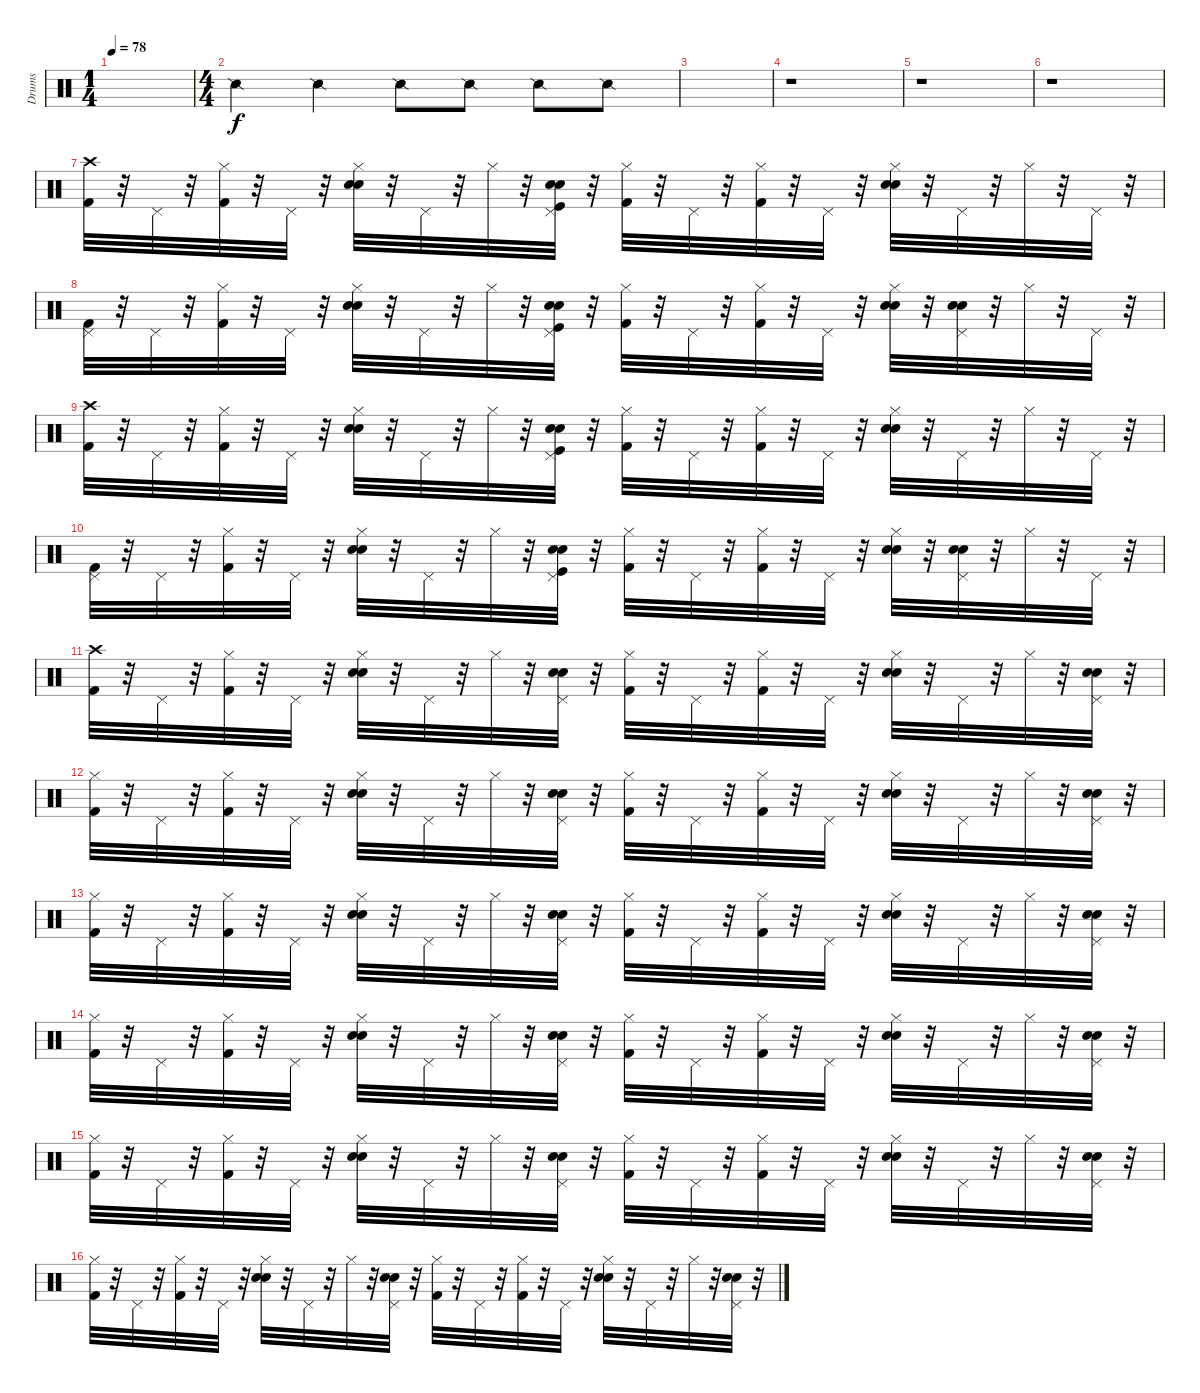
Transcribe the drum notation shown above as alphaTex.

\track ("Drums" "Drums") {instrument percussion}
\staff {score}
\articulation defaults
\ts (1 4)
\tempo 78
\clef neutral
\ks c
|
\ts (4 4)
"Snare (side stick) 2".4 "Snare (side stick) 2".4 "Snare (side stick) 2".8 "Snare (side stick) 2".8 "Snare (side stick) 2".8 "Snare (side stick) 2".8 |
|
r.1 |
r.1 |
r.1 |
("Crash high (hit)" "Kick (hit) 2").32 r.32 "Pedal Hi-Hat (hit)".32 r.32 ("Hi-Hat (closed)" "Kick (hit) 2").32 r.32 "Pedal Hi-Hat (hit)".32 r.32 ("Hi-Hat (closed)" "Hand Clap (hit)" "Electric Snare (hit)").32 r.32 "Pedal Hi-Hat (hit)".32 r.32 "Hi-Hat (closed)".32 r.32 ("Hand Clap (hit)" "Electric Snare (hit)" "Pedal Hi-Hat (hit)" "Kick (hit)").32 r.32 ("Hi-Hat (closed)" "Kick (hit) 2").32 r.32 "Pedal Hi-Hat (hit)".32 r.32 ("Hi-Hat (closed)" "Kick (hit) 2").32 r.32 "Pedal Hi-Hat (hit)".32 r.32 ("Hi-Hat (closed)" "Hand Clap (hit)" "Electric Snare (hit)").32 r.32 "Pedal Hi-Hat (hit)".32 r.32 "Hi-Hat (closed)".32 r.32 "Pedal Hi-Hat (hit)".32 r.32 |
("Pedal Hi-Hat (hit)" "Kick (hit) 2").32 r.32 "Pedal Hi-Hat (hit)".32 r.32 ("Hi-Hat (closed)" "Kick (hit) 2").32 r.32 "Pedal Hi-Hat (hit)".32 r.32 ("Hi-Hat (closed)" "Hand Clap (hit)" "Electric Snare (hit)").32 r.32 "Pedal Hi-Hat (hit)".32 r.32 "Hi-Hat (closed)".32 r.32 ("Hand Clap (hit)" "Electric Snare (hit)" "Pedal Hi-Hat (hit)" "Kick (hit)").32 r.32 ("Hi-Hat (closed)" "Kick (hit) 2").32 r.32 "Pedal Hi-Hat (hit)".32 r.32 ("Hi-Hat (closed)" "Kick (hit) 2").32 r.32 "Pedal Hi-Hat (hit)".32 r.32 ("Hi-Hat (closed)" "Hand Clap (hit)" "Electric Snare (hit)").32 r.32 ("Hand Clap (hit)" "Electric Snare (hit)" "Pedal Hi-Hat (hit)").32 r.32 "Hi-Hat (closed)".32 r.32 "Pedal Hi-Hat (hit)".32 r.32 |
("Crash high (hit)" "Kick (hit) 2").32 r.32 "Pedal Hi-Hat (hit)".32 r.32 ("Hi-Hat (closed)" "Kick (hit) 2").32 r.32 "Pedal Hi-Hat (hit)".32 r.32 ("Hi-Hat (closed)" "Hand Clap (hit)" "Electric Snare (hit)").32 r.32 "Pedal Hi-Hat (hit)".32 r.32 "Hi-Hat (closed)".32 r.32 ("Hand Clap (hit)" "Electric Snare (hit)" "Pedal Hi-Hat (hit)" "Kick (hit)").32 r.32 ("Hi-Hat (closed)" "Kick (hit) 2").32 r.32 "Pedal Hi-Hat (hit)".32 r.32 ("Hi-Hat (closed)" "Kick (hit) 2").32 r.32 "Pedal Hi-Hat (hit)".32 r.32 ("Hi-Hat (closed)" "Hand Clap (hit)" "Electric Snare (hit)").32 r.32 "Pedal Hi-Hat (hit)".32 r.32 "Hi-Hat (closed)".32 r.32 "Pedal Hi-Hat (hit)".32 r.32 |
("Pedal Hi-Hat (hit)" "Kick (hit) 2").32 r.32 "Pedal Hi-Hat (hit)".32 r.32 ("Hi-Hat (closed)" "Kick (hit) 2").32 r.32 "Pedal Hi-Hat (hit)".32 r.32 ("Hi-Hat (closed)" "Hand Clap (hit)" "Electric Snare (hit)").32 r.32 "Pedal Hi-Hat (hit)".32 r.32 "Hi-Hat (closed)".32 r.32 ("Hand Clap (hit)" "Electric Snare (hit)" "Pedal Hi-Hat (hit)" "Kick (hit)").32 r.32 ("Hi-Hat (closed)" "Kick (hit) 2").32 r.32 "Pedal Hi-Hat (hit)".32 r.32 ("Hi-Hat (closed)" "Kick (hit) 2").32 r.32 "Pedal Hi-Hat (hit)".32 r.32 ("Hi-Hat (closed)" "Hand Clap (hit)" "Electric Snare (hit)").32 r.32 ("Hand Clap (hit)" "Electric Snare (hit)" "Pedal Hi-Hat (hit)").32 r.32 "Hi-Hat (closed)".32 r.32 "Pedal Hi-Hat (hit)".32 r.32 |
("Kick (hit) 2" "Crash high (hit)").32 r.32 "Pedal Hi-Hat (hit)".32 r.32 ("Kick (hit) 2" "Hi-Hat (closed)").32 r.32 "Pedal Hi-Hat (hit)".32 r.32 ("Snare (hit) 2" "Electric Snare (hit)" "Hi-Hat (closed)").32 r.32 "Pedal Hi-Hat (hit)".32 r.32 "Hi-Hat (closed)".32 r.32 ("Snare (hit) 2" "Electric Snare (hit)" "Pedal Hi-Hat (hit)").32 r.32 ("Kick (hit) 2" "Hi-Hat (closed)").32 r.32 "Pedal Hi-Hat (hit)".32 r.32 ("Kick (hit) 2" "Hi-Hat (closed)").32 r.32 "Pedal Hi-Hat (hit)".32 r.32 ("Electric Snare (hit)" "Snare (hit) 2" "Hi-Hat (closed)").32 r.32 "Pedal Hi-Hat (hit)".32 r.32 "Hi-Hat (closed)".32 r.32 ("Pedal Hi-Hat (hit)" "Snare (hit) 2" "Electric Snare (hit)").32 r.32 |
("Hi-Hat (closed)" "Kick (hit) 2").32 r.32 "Pedal Hi-Hat (hit)".32 r.32 ("Kick (hit) 2" "Hi-Hat (closed)").32 r.32 "Pedal Hi-Hat (hit)".32 r.32 ("Snare (hit) 2" "Electric Snare (hit)" "Hi-Hat (closed)").32 r.32 "Pedal Hi-Hat (hit)".32 r.32 "Hi-Hat (closed)".32 r.32 ("Snare (hit) 2" "Electric Snare (hit)" "Pedal Hi-Hat (hit)").32 r.32 ("Kick (hit) 2" "Hi-Hat (closed)").32 r.32 "Pedal Hi-Hat (hit)".32 r.32 ("Kick (hit) 2" "Hi-Hat (closed)").32 r.32 "Pedal Hi-Hat (hit)".32 r.32 ("Electric Snare (hit)" "Snare (hit) 2" "Hi-Hat (closed)").32 r.32 "Pedal Hi-Hat (hit)".32 r.32 "Hi-Hat (closed)".32 r.32 ("Pedal Hi-Hat (hit)" "Snare (hit) 2" "Electric Snare (hit)").32 r.32 |
("Hi-Hat (closed)" "Kick (hit) 2").32 r.32 "Pedal Hi-Hat (hit)".32 r.32 ("Kick (hit) 2" "Hi-Hat (closed)").32 r.32 "Pedal Hi-Hat (hit)".32 r.32 ("Snare (hit) 2" "Electric Snare (hit)" "Hi-Hat (closed)").32 r.32 "Pedal Hi-Hat (hit)".32 r.32 "Hi-Hat (closed)".32 r.32 ("Snare (hit) 2" "Electric Snare (hit)" "Pedal Hi-Hat (hit)").32 r.32 ("Kick (hit) 2" "Hi-Hat (closed)").32 r.32 "Pedal Hi-Hat (hit)".32 r.32 ("Kick (hit) 2" "Hi-Hat (closed)").32 r.32 "Pedal Hi-Hat (hit)".32 r.32 ("Electric Snare (hit)" "Snare (hit) 2" "Hi-Hat (closed)").32 r.32 "Pedal Hi-Hat (hit)".32 r.32 "Hi-Hat (closed)".32 r.32 ("Pedal Hi-Hat (hit)" "Snare (hit) 2" "Electric Snare (hit)").32 r.32 |
("Hi-Hat (closed)" "Kick (hit) 2").32 r.32 "Pedal Hi-Hat (hit)".32 r.32 ("Kick (hit) 2" "Hi-Hat (closed)").32 r.32 "Pedal Hi-Hat (hit)".32 r.32 ("Snare (hit) 2" "Electric Snare (hit)" "Hi-Hat (closed)").32 r.32 "Pedal Hi-Hat (hit)".32 r.32 "Hi-Hat (closed)".32 r.32 ("Snare (hit) 2" "Electric Snare (hit)" "Pedal Hi-Hat (hit)").32 r.32 ("Kick (hit) 2" "Hi-Hat (closed)").32 r.32 "Pedal Hi-Hat (hit)".32 r.32 ("Kick (hit) 2" "Hi-Hat (closed)").32 r.32 "Pedal Hi-Hat (hit)".32 r.32 ("Electric Snare (hit)" "Snare (hit) 2" "Hi-Hat (closed)").32 r.32 "Pedal Hi-Hat (hit)".32 r.32 "Hi-Hat (closed)".32 r.32 ("Pedal Hi-Hat (hit)" "Snare (hit) 2" "Electric Snare (hit)").32 r.32 |
("Hi-Hat (closed)" "Kick (hit) 2").32 r.32 "Pedal Hi-Hat (hit)".32 r.32 ("Kick (hit) 2" "Hi-Hat (closed)").32 r.32 "Pedal Hi-Hat (hit)".32 r.32 ("Snare (hit) 2" "Electric Snare (hit)" "Hi-Hat (closed)").32 r.32 "Pedal Hi-Hat (hit)".32 r.32 "Hi-Hat (closed)".32 r.32 ("Snare (hit) 2" "Electric Snare (hit)" "Pedal Hi-Hat (hit)").32 r.32 ("Kick (hit) 2" "Hi-Hat (closed)").32 r.32 "Pedal Hi-Hat (hit)".32 r.32 ("Kick (hit) 2" "Hi-Hat (closed)").32 r.32 "Pedal Hi-Hat (hit)".32 r.32 ("Electric Snare (hit)" "Snare (hit) 2" "Hi-Hat (closed)").32 r.32 "Pedal Hi-Hat (hit)".32 r.32 "Hi-Hat (closed)".32 r.32 ("Pedal Hi-Hat (hit)" "Snare (hit) 2" "Electric Snare (hit)").32 r.32 |
("Hi-Hat (closed)" "Kick (hit) 2").32 r.32 "Pedal Hi-Hat (hit)".32 r.32 ("Kick (hit) 2" "Hi-Hat (closed)").32 r.32 "Pedal Hi-Hat (hit)".32 r.32 ("Snare (hit) 2" "Electric Snare (hit)" "Hi-Hat (closed)").32 r.32 "Pedal Hi-Hat (hit)".32 r.32 "Hi-Hat (closed)".32 r.32 ("Snare (hit) 2" "Electric Snare (hit)" "Pedal Hi-Hat (hit)").32 r.32 ("Kick (hit) 2" "Hi-Hat (closed)").32 r.32 "Pedal Hi-Hat (hit)".32 r.32 ("Kick (hit) 2" "Hi-Hat (closed)").32 r.32 "Pedal Hi-Hat (hit)".32 r.32 ("Electric Snare (hit)" "Snare (hit) 2" "Hi-Hat (closed)").32 r.32 "Pedal Hi-Hat (hit)".32 r.32 "Hi-Hat (closed)".32 r.32 ("Pedal Hi-Hat (hit)" "Snare (hit) 2" "Electric Snare (hit)").32 r.32
